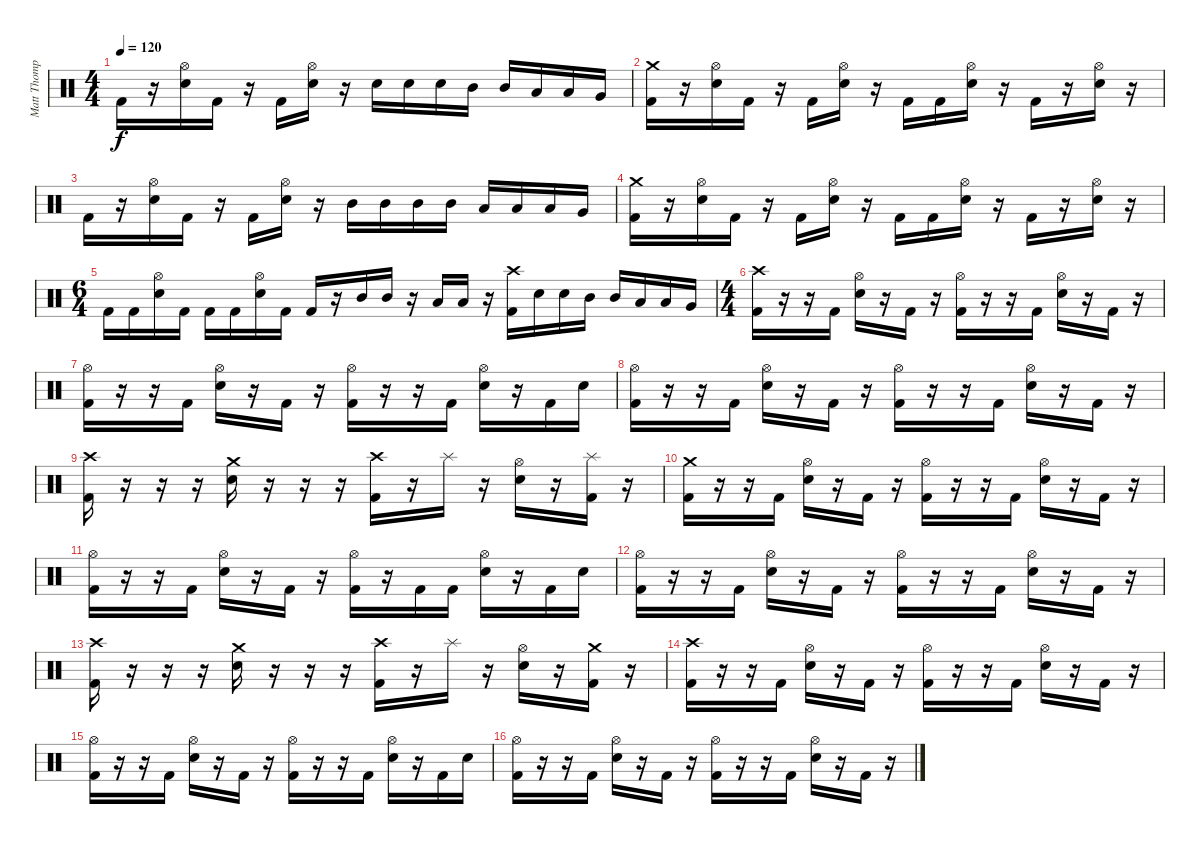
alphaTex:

\track ("Matt Thompson" "Matt Thomp") {instrument percussion}
\staff {score}
\articulation defaults
\ts (4 4)
\tempo 120
\clef neutral
\ks c "Kick (hit) 2".16{dy f}
r.16 ("Hi-Hat (open)" "Snare (hit) 2").16 "Kick (hit) 2".16 r.16 "Kick (hit) 2".16 ("Hi-Hat (open)" "Snare (hit) 2").16 r.16 "Snare (hit) 2".16 "Snare (hit) 2".16 "Snare (hit) 2".16 "Mid Tom (hit)".16 "Mid Tom (hit)".16 "Low Tom (hit)".16 "Low Tom (hit)".16 "Very Low Tom (hit)".16 |
("Crash medium (hit)" "Kick (hit) 2").16 r.16 ("Hi-Hat (open)" "Snare (hit) 2").16 "Kick (hit) 2".16 r.16 "Kick (hit) 2".16 ("Hi-Hat (open)" "Snare (hit) 2").16 r.16 "Kick (hit) 2".16 "Kick (hit) 2".16 ("Hi-Hat (open)" "Snare (hit) 2").16 r.16 "Kick (hit) 2".16 r.16 ("Hi-Hat (open)" "Snare (hit) 2").16 r.16 |
"Kick (hit) 2".16 r.16 ("Hi-Hat (open)" "Snare (hit) 2").16 "Kick (hit) 2".16 r.16 "Kick (hit) 2".16 ("Hi-Hat (open)" "Snare (hit) 2").16 r.16 "Mid Tom (hit)".16 "Mid Tom (hit)".16 "Mid Tom (hit)".16 "Mid Tom (hit)".16 "Low Tom (hit)".16 "Low Tom (hit)".16 "Low Tom (hit)".16 "Very Low Tom (hit)".16 |
("Crash medium (hit)" "Kick (hit) 2").16 r.16 ("Hi-Hat (open)" "Snare (hit) 2").16 "Kick (hit) 2".16 r.16 "Kick (hit) 2".16 ("Hi-Hat (open)" "Snare (hit) 2").16 r.16 "Kick (hit) 2".16 "Kick (hit) 2".16 ("Hi-Hat (open)" "Snare (hit) 2").16 r.16 "Kick (hit) 2".16 r.16 ("Hi-Hat (open)" "Snare (hit) 2").16 r.16 |
\ts (6 4)
"Kick (hit) 2".16 "Kick (hit) 2".16 ("Hi-Hat (open)" "Snare (hit) 2").16 "Kick (hit) 2".16 "Kick (hit) 2".16 "Kick (hit) 2".16 ("Hi-Hat (open)" "Snare (hit) 2").16 "Kick (hit) 2".16 "Kick (hit) 2".16 r.16 "Mid Tom (hit)".16 "Mid Tom (hit)".16 r.16 "Low Tom (hit)".16 "Low Tom (hit)".16 r.16 ("Crash high (hit)" "Kick (hit) 2").16 "Snare (hit) 2".16 "Snare (hit) 2".16 "Mid Tom (hit)".16 "Mid Tom (hit)".16 "Low Tom (hit)".16 "Low Tom (hit)".16 "Very Low Tom (hit)".16 |
\ts (4 4)
("Crash high (hit)" "Kick (hit) 2").16 r.16 r.16 "Kick (hit) 2".16 ("Hi-Hat (open)" "Snare (hit) 2").16 r.16 "Kick (hit) 2".16 r.16 ("Hi-Hat (open)" "Kick (hit) 2").16 r.16 r.16 "Kick (hit) 2".16 ("Hi-Hat (open)" "Snare (hit) 2").16 r.16 "Kick (hit) 2".16 r.16 |
("Hi-Hat (open)" "Kick (hit) 2").16 r.16 r.16 "Kick (hit) 2".16 ("Hi-Hat (open)" "Snare (hit) 2").16 r.16 "Kick (hit) 2".16 r.16 ("Hi-Hat (open)" "Kick (hit) 2").16 r.16 r.16 "Kick (hit) 2".16 ("Hi-Hat (open)" "Snare (hit) 2").16 r.16 "Kick (hit) 2".16 "Snare (hit) 2".16 |
("Hi-Hat (open)" "Kick (hit) 2").16 r.16 r.16 "Kick (hit) 2".16 ("Hi-Hat (open)" "Snare (hit) 2").16 r.16 "Kick (hit) 2".16 r.16 ("Hi-Hat (open)" "Kick (hit) 2").16 r.16 r.16 "Kick (hit) 2".16 ("Hi-Hat (open)" "Snare (hit) 2").16 r.16 "Kick (hit) 2".16 r.16 |
("Crash high (hit)" "Kick (hit) 2").16 r.16 r.16 r.16 ("Crash medium (hit)" "Snare (hit) 2").16 r.16 r.16 r.16 ("Crash high (hit)" "Kick (hit) 2").16 r.16 "Splash (hit)".16 r.16 ("Hi-Hat (open)" "Snare (hit) 2").16 r.16 ("Splash (hit)" "Kick (hit) 2").16 r.16 |
("Crash medium (hit)" "Kick (hit) 2").16 r.16 r.16 "Kick (hit) 2".16 ("Hi-Hat (open)" "Snare (hit) 2").16 r.16 "Kick (hit) 2".16 r.16 ("Hi-Hat (open)" "Kick (hit) 2").16 r.16 r.16 "Kick (hit) 2".16 ("Hi-Hat (open)" "Snare (hit) 2").16 r.16 "Kick (hit) 2".16 r.16 |
("Hi-Hat (open)" "Kick (hit) 2").16 r.16 r.16 "Kick (hit) 2".16 ("Hi-Hat (open)" "Snare (hit) 2").16 r.16 "Kick (hit) 2".16 r.16 ("Hi-Hat (open)" "Kick (hit) 2").16 r.16 "Kick (hit) 2".16 "Kick (hit) 2".16 ("Hi-Hat (open)" "Snare (hit) 2").16 r.16 "Kick (hit) 2".16 "Snare (hit) 2".16 |
("Hi-Hat (open)" "Kick (hit) 2").16 r.16 r.16 "Kick (hit) 2".16 ("Hi-Hat (open)" "Snare (hit) 2").16 r.16 "Kick (hit) 2".16 r.16 ("Hi-Hat (open)" "Kick (hit) 2").16 r.16 r.16 "Kick (hit) 2".16 ("Hi-Hat (open)" "Snare (hit) 2").16 r.16 "Kick (hit) 2".16 r.16 |
("Crash high (hit)" "Kick (hit) 2").16 r.16 r.16 r.16 ("Crash medium (hit)" "Snare (hit) 2").16 r.16 r.16 r.16 ("Crash high (hit)" "Kick (hit) 2").16 r.16 "Splash (hit)".16 r.16 ("Hi-Hat (open)" "Snare (hit) 2").16 r.16 ("Crash medium (hit)" "Kick (hit) 2").16 r.16 |
("Crash high (hit)" "Kick (hit) 2").16 r.16 r.16 "Kick (hit) 2".16 ("Hi-Hat (open)" "Snare (hit) 2").16 r.16 "Kick (hit) 2".16 r.16 ("Hi-Hat (open)" "Kick (hit) 2").16 r.16 r.16 "Kick (hit) 2".16 ("Hi-Hat (open)" "Snare (hit) 2").16 r.16 "Kick (hit) 2".16 r.16 |
("Hi-Hat (open)" "Kick (hit) 2").16 r.16 r.16 "Kick (hit) 2".16 ("Hi-Hat (open)" "Snare (hit) 2").16 r.16 "Kick (hit) 2".16 r.16 ("Hi-Hat (open)" "Kick (hit) 2").16 r.16 r.16 "Kick (hit) 2".16 ("Hi-Hat (open)" "Snare (hit) 2").16 r.16 "Kick (hit) 2".16 "Snare (hit) 2".16 |
("Hi-Hat (open)" "Kick (hit) 2").16 r.16 r.16 "Kick (hit) 2".16 ("Hi-Hat (open)" "Snare (hit) 2").16 r.16 "Kick (hit) 2".16 r.16 ("Hi-Hat (open)" "Kick (hit) 2").16 r.16 r.16 "Kick (hit) 2".16 ("Hi-Hat (open)" "Snare (hit) 2").16 r.16 "Kick (hit) 2".16 r.16
